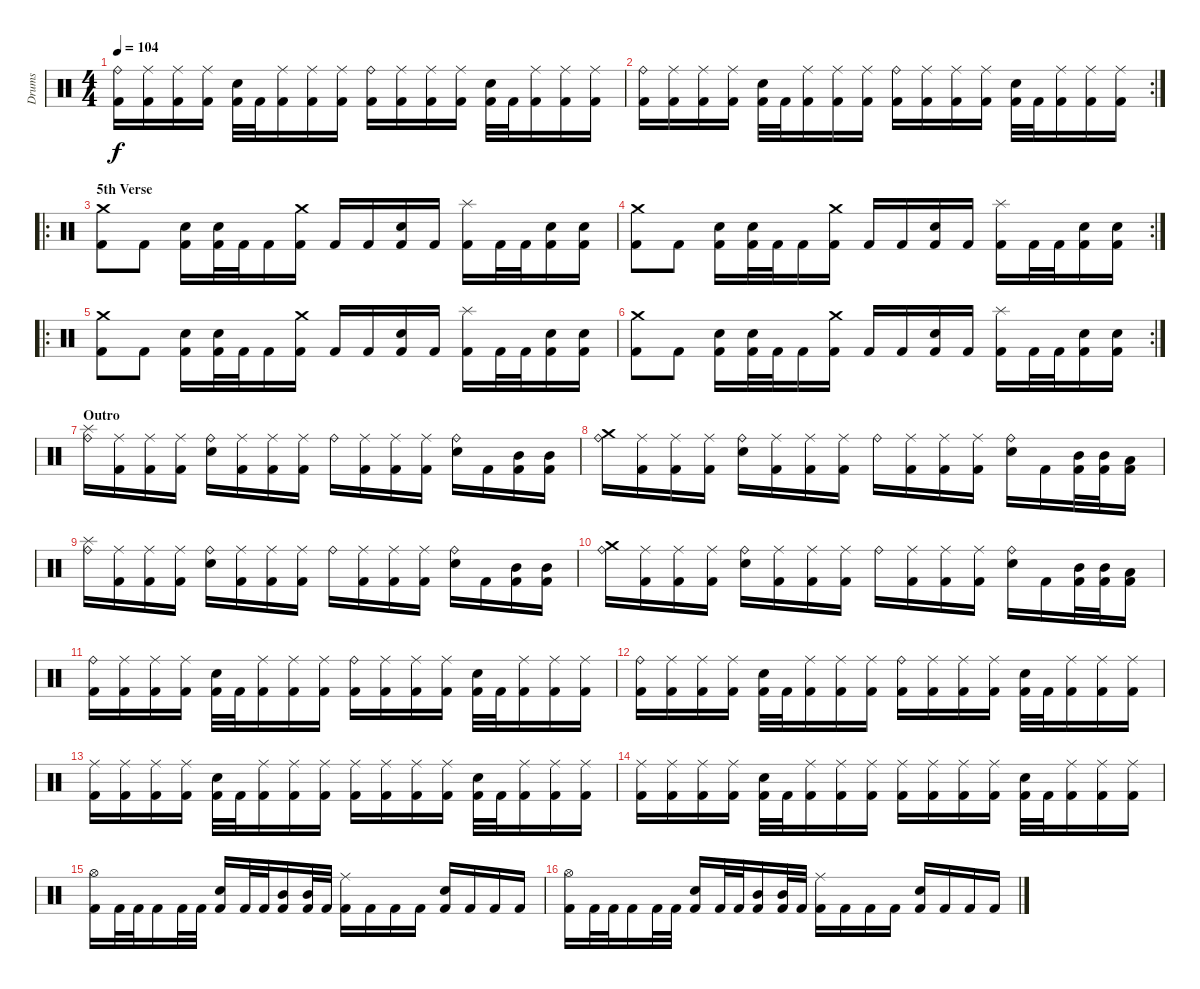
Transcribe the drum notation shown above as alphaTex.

\track ("Drums" "Drums") {instrument percussion}
\staff {score}
\articulation defaults
\ts (4 4)
\tempo 104
\clef neutral
\ks c
("Ride (bell)" "Kick (hit) 2").16{dy f} ("Ride (middle)" "Kick (hit) 2").16 ("Ride (middle)" "Kick (hit) 2").16 ("Ride (middle)" "Kick (hit) 2").16 ("Snare (hit) 2" "Kick (hit) 2").32 "Kick (hit) 2".32 ("Ride (middle)" "Kick (hit) 2").16 ("Ride (middle)" "Kick (hit) 2").16 ("Ride (middle)" "Kick (hit) 2").16 ("Ride (bell)" "Kick (hit) 2").16 ("Ride (middle)" "Kick (hit) 2").16 ("Ride (middle)" "Kick (hit) 2").16 ("Ride (middle)" "Kick (hit) 2").16 ("Snare (hit) 2" "Kick (hit) 2").32 "Kick (hit) 2".32 ("Ride (middle)" "Kick (hit) 2").16 ("Ride (middle)" "Kick (hit) 2").16 ("Ride (middle)" "Kick (hit) 2").16 |
\rc 2
("Ride (bell)" "Kick (hit) 2").16 ("Ride (middle)" "Kick (hit) 2").16 ("Ride (middle)" "Kick (hit) 2").16 ("Ride (middle)" "Kick (hit) 2").16 ("Snare (hit) 2" "Kick (hit) 2").32 "Kick (hit) 2".32 ("Ride (middle)" "Kick (hit) 2").16 ("Ride (middle)" "Kick (hit) 2").16 ("Ride (middle)" "Kick (hit) 2").16 ("Ride (bell)" "Kick (hit) 2").16 ("Ride (middle)" "Kick (hit) 2").16 ("Ride (middle)" "Kick (hit) 2").16 ("Ride (middle)" "Kick (hit) 2").16 ("Snare (hit) 2" "Kick (hit) 2").32 "Kick (hit) 2".32 ("Ride (middle)" "Kick (hit) 2").16 ("Ride (middle)" "Kick (hit) 2").16 ("Ride (middle)" "Kick (hit) 2").16 |
\ro
\section ("" "5th Verse")
("Crash medium (hit)" "Kick (hit) 2").8 "Kick (hit) 2".8 ("Snare (hit) 2" "Kick (hit) 2").16 ("Snare (hit) 2" "Kick (hit) 2").32 "Kick (hit) 2".32 "Kick (hit) 2".16 ("Crash medium (hit)" "Kick (hit) 2").16 "Kick (hit) 2".16 "Kick (hit) 2".16 ("Snare (hit) 2" "Kick (hit) 2").16 "Kick (hit) 2".16 ("Splash (hit)" "Kick (hit) 2").16 "Kick (hit) 2".32 "Kick (hit) 2".32 ("Snare (hit) 2" "Kick (hit) 2").16 ("Snare (hit) 2" "Kick (hit) 2").16 |
\rc 2
("Crash medium (hit)" "Kick (hit) 2").8 "Kick (hit) 2".8 ("Snare (hit) 2" "Kick (hit) 2").16 ("Snare (hit) 2" "Kick (hit) 2").32 "Kick (hit) 2".32 "Kick (hit) 2".16 ("Crash medium (hit)" "Kick (hit) 2").16 "Kick (hit) 2".16 "Kick (hit) 2".16 ("Snare (hit) 2" "Kick (hit) 2").16 "Kick (hit) 2".16 ("Splash (hit)" "Kick (hit) 2").16 "Kick (hit) 2".32 "Kick (hit) 2".32 ("Snare (hit) 2" "Kick (hit) 2").16 ("Snare (hit) 2" "Kick (hit) 2").16 |
\ro
("Crash medium (hit)" "Kick (hit) 2").8 "Kick (hit) 2".8 ("Snare (hit) 2" "Kick (hit) 2").16 ("Snare (hit) 2" "Kick (hit) 2").32 "Kick (hit) 2".32 "Kick (hit) 2".16 ("Crash medium (hit)" "Kick (hit) 2").16 "Kick (hit) 2".16 "Kick (hit) 2".16 ("Snare (hit) 2" "Kick (hit) 2").16 "Kick (hit) 2".16 ("Splash (hit)" "Kick (hit) 2").16 "Kick (hit) 2".32 "Kick (hit) 2".32 ("Snare (hit) 2" "Kick (hit) 2").16 ("Snare (hit) 2" "Kick (hit) 2").16 |
\rc 2
("Crash medium (hit)" "Kick (hit) 2").8 "Kick (hit) 2".8 ("Snare (hit) 2" "Kick (hit) 2").16 ("Snare (hit) 2" "Kick (hit) 2").32 "Kick (hit) 2".32 "Kick (hit) 2".16 ("Crash medium (hit)" "Kick (hit) 2").16 "Kick (hit) 2".16 "Kick (hit) 2".16 ("Snare (hit) 2" "Kick (hit) 2").16 "Kick (hit) 2".16 ("Splash (hit)" "Kick (hit) 2").16 "Kick (hit) 2".32 "Kick (hit) 2".32 ("Snare (hit) 2" "Kick (hit) 2").16 ("Snare (hit) 2" "Kick (hit) 2").16 |
\section ("" "Outro")
("Ride (bell)" "Splash (hit)").16 ("Ride (middle)" "Kick (hit) 2").16 ("Ride (middle)" "Kick (hit) 2").16 ("Ride (middle)" "Kick (hit) 2").16 ("Ride (bell)" "Snare (hit) 2").16 ("Ride (middle)" "Kick (hit) 2").16 ("Ride (middle)" "Kick (hit) 2").16 ("Ride (middle)" "Kick (hit) 2").16 "Ride (bell)".16 ("Ride (middle)" "Kick (hit) 2").16 ("Ride (middle)" "Kick (hit) 2").16 ("Ride (middle)" "Kick (hit) 2").16 ("Ride (bell)" "Snare (hit) 2").16 "Kick (hit) 2".16 ("Mid Tom (hit)" "Kick (hit) 2").16 ("Mid Tom (hit)" "Kick (hit) 2").16 |
("Ride (bell)" "Crash medium (hit)").16 ("Ride (middle)" "Kick (hit) 2").16 ("Ride (middle)" "Kick (hit) 2").16 ("Ride (middle)" "Kick (hit) 2").16 ("Ride (bell)" "Snare (hit) 2").16 ("Ride (middle)" "Kick (hit) 2").16 ("Ride (middle)" "Kick (hit) 2").16 ("Ride (middle)" "Kick (hit) 2").16 "Ride (bell)".16 ("Ride (middle)" "Kick (hit) 2").16 ("Ride (middle)" "Kick (hit) 2").16 ("Ride (middle)" "Kick (hit) 2").16 ("Ride (bell)" "Snare (hit) 2").16 "Kick (hit) 2".16 ("Mid Tom (hit)" "Kick (hit) 2").32 ("Mid Tom (hit)" "Kick (hit) 2").32 ("Low Tom (hit)" "Kick (hit) 2").16 |
("Ride (bell)" "Splash (hit)").16 ("Ride (middle)" "Kick (hit) 2").16 ("Ride (middle)" "Kick (hit) 2").16 ("Ride (middle)" "Kick (hit) 2").16 ("Ride (bell)" "Snare (hit) 2").16 ("Ride (middle)" "Kick (hit) 2").16 ("Ride (middle)" "Kick (hit) 2").16 ("Ride (middle)" "Kick (hit) 2").16 "Ride (bell)".16 ("Ride (middle)" "Kick (hit) 2").16 ("Ride (middle)" "Kick (hit) 2").16 ("Ride (middle)" "Kick (hit) 2").16 ("Ride (bell)" "Snare (hit) 2").16 "Kick (hit) 2".16 ("Mid Tom (hit)" "Kick (hit) 2").16 ("Mid Tom (hit)" "Kick (hit) 2").16 |
("Ride (bell)" "Crash medium (hit)").16 ("Ride (middle)" "Kick (hit) 2").16 ("Ride (middle)" "Kick (hit) 2").16 ("Ride (middle)" "Kick (hit) 2").16 ("Ride (bell)" "Snare (hit) 2").16 ("Ride (middle)" "Kick (hit) 2").16 ("Ride (middle)" "Kick (hit) 2").16 ("Ride (middle)" "Kick (hit) 2").16 "Ride (bell)".16 ("Ride (middle)" "Kick (hit) 2").16 ("Ride (middle)" "Kick (hit) 2").16 ("Ride (middle)" "Kick (hit) 2").16 ("Ride (bell)" "Snare (hit) 2").16 "Kick (hit) 2".16 ("Mid Tom (hit)" "Kick (hit) 2").32 ("Mid Tom (hit)" "Kick (hit) 2").32 ("Low Tom (hit)" "Kick (hit) 2").16 |
("Ride (bell)" "Kick (hit) 2").16 ("Ride (middle)" "Kick (hit) 2").16 ("Ride (middle)" "Kick (hit) 2").16 ("Ride (middle)" "Kick (hit) 2").16 ("Snare (hit) 2" "Kick (hit) 2").32 "Kick (hit) 2".32 ("Ride (middle)" "Kick (hit) 2").16 ("Ride (middle)" "Kick (hit) 2").16 ("Ride (middle)" "Kick (hit) 2").16 ("Ride (bell)" "Kick (hit) 2").16 ("Ride (middle)" "Kick (hit) 2").16 ("Ride (middle)" "Kick (hit) 2").16 ("Ride (middle)" "Kick (hit) 2").16 ("Snare (hit) 2" "Kick (hit) 2").32 "Kick (hit) 2".32 ("Ride (middle)" "Kick (hit) 2").16 ("Ride (middle)" "Kick (hit) 2").16 ("Ride (middle)" "Kick (hit) 2").16 |
("Ride (bell)" "Kick (hit) 2").16 ("Ride (middle)" "Kick (hit) 2").16 ("Ride (middle)" "Kick (hit) 2").16 ("Ride (middle)" "Kick (hit) 2").16 ("Snare (hit) 2" "Kick (hit) 2").32 "Kick (hit) 2".32 ("Ride (middle)" "Kick (hit) 2").16 ("Ride (middle)" "Kick (hit) 2").16 ("Ride (middle)" "Kick (hit) 2").16 ("Ride (bell)" "Kick (hit) 2").16 ("Ride (middle)" "Kick (hit) 2").16 ("Ride (middle)" "Kick (hit) 2").16 ("Ride (middle)" "Kick (hit) 2").16 ("Snare (hit) 2" "Kick (hit) 2").32 "Kick (hit) 2".32 ("Ride (middle)" "Kick (hit) 2").16 ("Ride (middle)" "Kick (hit) 2").16 ("Ride (middle)" "Kick (hit) 2").16 |
("Ride (middle)" "Kick (hit) 2").16 ("Ride (middle)" "Kick (hit) 2").16 ("Ride (middle)" "Kick (hit) 2").16 ("Ride (middle)" "Kick (hit) 2").16 ("Snare (hit) 2" "Kick (hit) 2").32 "Kick (hit) 2".32 ("Ride (middle)" "Kick (hit) 2").16 ("Ride (middle)" "Kick (hit) 2").16 ("Ride (middle)" "Kick (hit) 2").16 ("Ride (middle)" "Kick (hit) 2").16 ("Ride (middle)" "Kick (hit) 2").16 ("Ride (middle)" "Kick (hit) 2").16 ("Ride (middle)" "Kick (hit) 2").16 ("Snare (hit) 2" "Kick (hit) 2").32 "Kick (hit) 2".32 ("Ride (middle)" "Kick (hit) 2").16 ("Ride (middle)" "Kick (hit) 2").16 ("Ride (middle)" "Kick (hit) 2").16 |
("Ride (middle)" "Kick (hit) 2").16 ("Ride (middle)" "Kick (hit) 2").16 ("Ride (middle)" "Kick (hit) 2").16 ("Ride (middle)" "Kick (hit) 2").16 ("Snare (hit) 2" "Kick (hit) 2").32 "Kick (hit) 2".32 ("Ride (middle)" "Kick (hit) 2").16 ("Ride (middle)" "Kick (hit) 2").16 ("Ride (middle)" "Kick (hit) 2").16 ("Ride (middle)" "Kick (hit) 2").16 ("Ride (middle)" "Kick (hit) 2").16 ("Ride (middle)" "Kick (hit) 2").16 ("Ride (middle)" "Kick (hit) 2").16 ("Snare (hit) 2" "Kick (hit) 2").32 "Kick (hit) 2".32 ("Ride (middle)" "Kick (hit) 2").16 ("Ride (middle)" "Kick (hit) 2").16 ("Ride (middle)" "Kick (hit) 2").16 |
("Hi-Hat (open)" "Kick (hit) 2").16 "Kick (hit) 2".32 "Kick (hit) 2".32 "Kick (hit) 2".16 "Kick (hit) 2".32 "Kick (hit) 2".32 ("Snare (hit) 2" "Kick (hit) 2").16 "Kick (hit) 2".32 "Kick (hit) 2".32 ("Mid Tom (hit)" "Kick (hit) 2").16 ("Mid Tom (hit)" "Kick (hit) 2").32 "Kick (hit) 2".32 ("Ride (middle)" "Kick (hit) 2").16 "Kick (hit) 2".16 "Kick (hit) 2".16 "Kick (hit) 2".16 ("Snare (hit) 2" "Kick (hit) 2").16 "Kick (hit) 2".16 "Kick (hit) 2".16 "Kick (hit) 2".16 |
("Hi-Hat (open)" "Kick (hit) 2").16 "Kick (hit) 2".32 "Kick (hit) 2".32 "Kick (hit) 2".16 "Kick (hit) 2".32 "Kick (hit) 2".32 ("Snare (hit) 2" "Kick (hit) 2").16 "Kick (hit) 2".32 "Kick (hit) 2".32 ("Mid Tom (hit)" "Kick (hit) 2").16 ("Mid Tom (hit)" "Kick (hit) 2").32 "Kick (hit) 2".32 ("Ride (middle)" "Kick (hit) 2").16 "Kick (hit) 2".16 "Kick (hit) 2".16 "Kick (hit) 2".16 ("Snare (hit) 2" "Kick (hit) 2").16 "Kick (hit) 2".16 "Kick (hit) 2".16 "Kick (hit) 2".16
